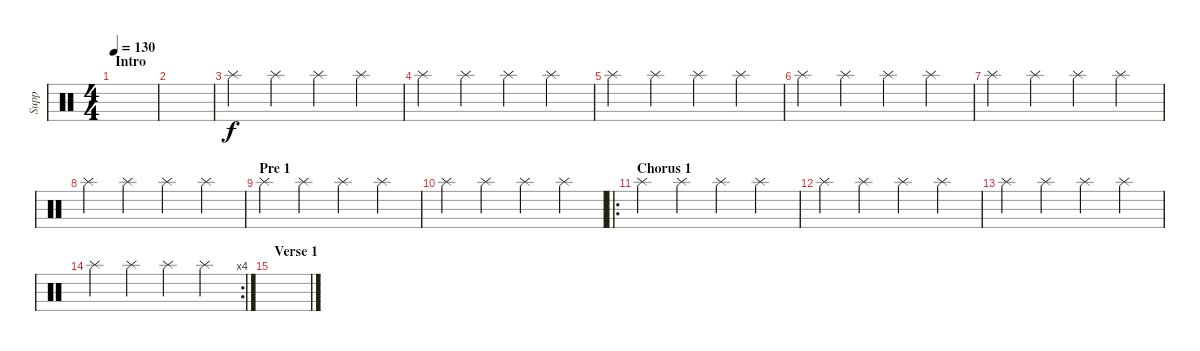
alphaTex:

\track ("Supp" "Supp") {instrument percussion}
\staff {score}
\articulation defaults
\ts (4 4)
\section ("" "Intro")
\tempo 130
\clef neutral
\ks c
|
|
"Splash (hit)".4 "Splash (hit)".4 "Splash (hit)".4 "Splash (hit)".4 |
"Splash (hit)".4 "Splash (hit)".4 "Splash (hit)".4 "Splash (hit)".4 |
"Splash (hit)".4 "Splash (hit)".4 "Splash (hit)".4 "Splash (hit)".4 |
"Splash (hit)".4 "Splash (hit)".4 "Splash (hit)".4 "Splash (hit)".4 |
"Splash (hit)".4 "Splash (hit)".4 "Splash (hit)".4 "Splash (hit)".4 |
"Splash (hit)".4 "Splash (hit)".4 "Splash (hit)".4 "Splash (hit)".4 |
\section ("" "Pre 1")
"Splash (hit)".4 "Splash (hit)".4 "Splash (hit)".4 "Splash (hit)".4 |
"Splash (hit)".4 "Splash (hit)".4 "Splash (hit)".4 "Splash (hit)".4 |
\ro
\section ("" "Chorus 1")
"Splash (hit)".4 "Splash (hit)".4 "Splash (hit)".4 "Splash (hit)".4 |
"Splash (hit)".4 "Splash (hit)".4 "Splash (hit)".4 "Splash (hit)".4 |
"Splash (hit)".4 "Splash (hit)".4 "Splash (hit)".4 "Splash (hit)".4 |
\rc 4 "Splash (hit)".4 "Splash (hit)".4 "Splash (hit)".4 "Splash (hit)".4
|
\section ("" "Verse 1")
